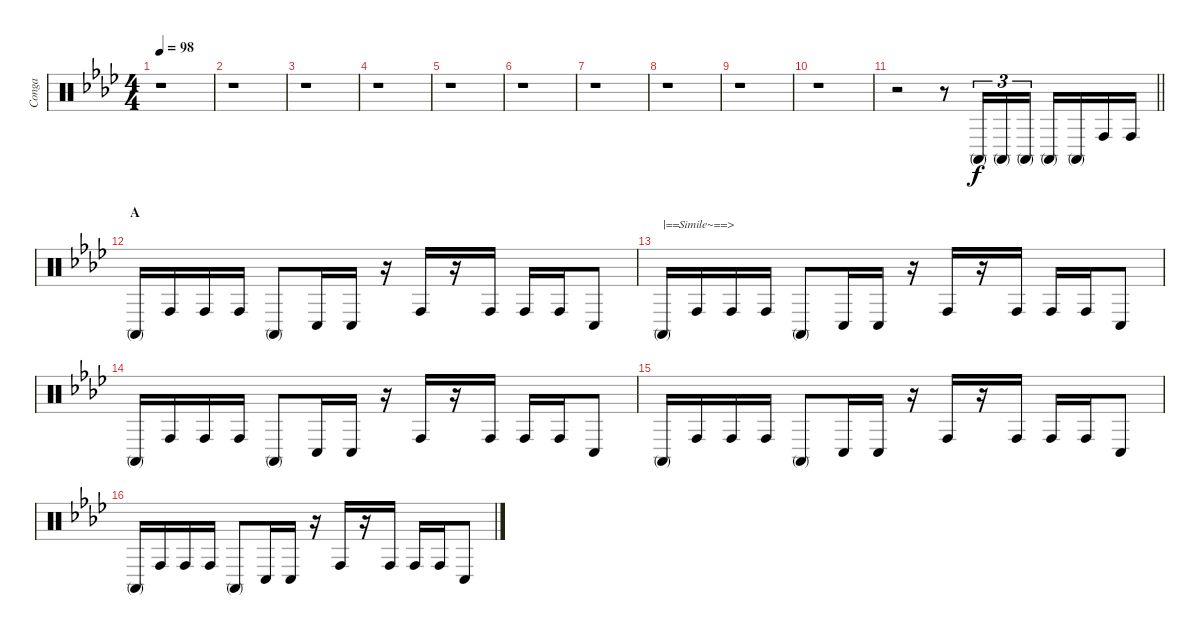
\track ("Conga" "Conga") {instrument percussion}
\staff {score}
\articulation defaults
\ts (4 4)
\tempo 98
\clef neutral
\ks ab
r.1{dy f} |
r.1 |
r.1 |
r.1 |
r.1 |
r.1 |
r.1 |
r.1 |
r.1 |
r.1 |
\barLineRight lightlight
r.2 r.8 "Conga high (mute)".16{tu (3 2)} "Conga high (mute)".16{tu (3 2)} "Conga high (mute)".16{tu (3 2)} "Conga high (mute)".16 "Conga high (mute)".16 "Conga high (hit)".16 "Conga high (hit)".16 |
\section ("" "A")
"Conga high (mute)".16 "Conga high (hit)".16 "Conga high (hit)".16 "Conga high (hit)".16 "Conga high (mute)".8 "Conga low (hit)".16 "Conga low (hit)".16 r.16 "Conga high (hit)".16 r.16 "Conga high (hit)".16 "Conga high (hit)".16 "Conga high (hit)".16 "Conga low (hit)".8 |
"Conga high (mute)".16{txt "|==Simile~==>"} "Conga high (hit)".16 "Conga high (hit)".16 "Conga high (hit)".16 "Conga high (mute)".8 "Conga low (hit)".16 "Conga low (hit)".16 r.16 "Conga high (hit)".16 r.16 "Conga high (hit)".16 "Conga high (hit)".16 "Conga high (hit)".16 "Conga low (hit)".8 |
"Conga high (mute)".16 "Conga high (hit)".16 "Conga high (hit)".16 "Conga high (hit)".16 "Conga high (mute)".8 "Conga low (hit)".16 "Conga low (hit)".16 r.16 "Conga high (hit)".16 r.16 "Conga high (hit)".16 "Conga high (hit)".16 "Conga high (hit)".16 "Conga low (hit)".8 |
"Conga high (mute)".16 "Conga high (hit)".16 "Conga high (hit)".16 "Conga high (hit)".16 "Conga high (mute)".8 "Conga low (hit)".16 "Conga low (hit)".16 r.16 "Conga high (hit)".16 r.16 "Conga high (hit)".16 "Conga high (hit)".16 "Conga high (hit)".16 "Conga low (hit)".8 |
"Conga high (mute)".16 "Conga high (hit)".16 "Conga high (hit)".16 "Conga high (hit)".16 "Conga high (mute)".8 "Conga low (hit)".16 "Conga low (hit)".16 r.16 "Conga high (hit)".16 r.16 "Conga high (hit)".16 "Conga high (hit)".16 "Conga high (hit)".16 "Conga low (hit)".8
